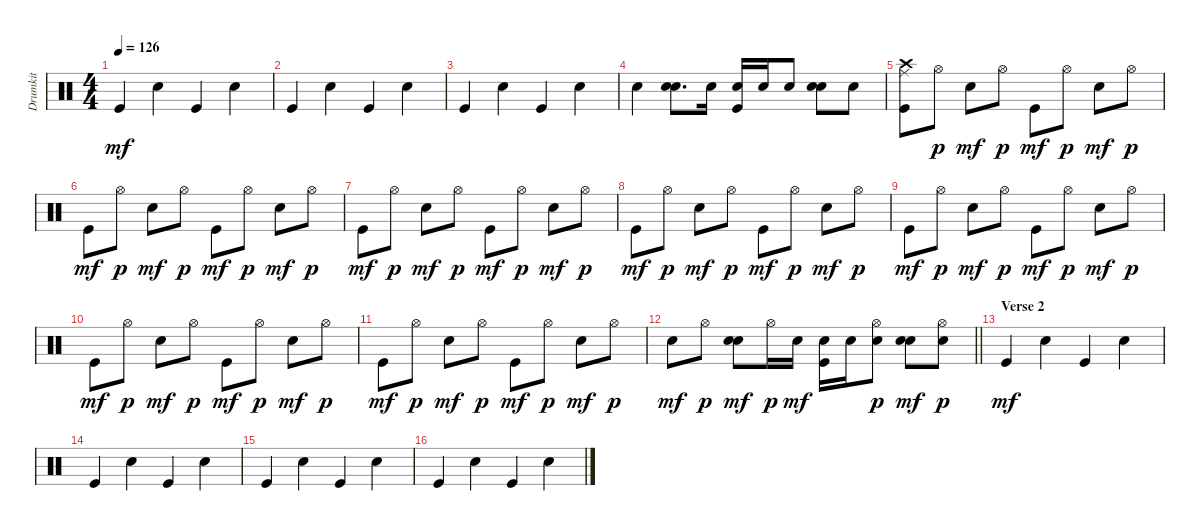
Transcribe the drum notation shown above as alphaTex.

\track ("Drumkit" "Drumkit") {instrument percussion}
\staff {score}
\articulation defaults
\ts (4 4)
\tempo 126
\clef neutral
\ks c "Kick (hit)".4{dy mf} "Snare (hit) 2".4 "Kick (hit)".4 "Snare (hit) 2".4
|
"Kick (hit)".4 "Snare (hit) 2".4 "Kick (hit)".4 "Snare (hit) 2".4 |
"Kick (hit)".4 "Snare (hit) 2".4 "Kick (hit)".4 "Snare (hit) 2".4 |
"Snare (hit) 2".4 ("Snare (hit) 2" "Snare (hit) 2").8{d} "Snare (hit) 2".16 ("Kick (hit)" "Snare (hit) 2").16 "Snare (hit) 2".16 "Snare (hit) 2".8 ("Snare (hit) 2" "Snare (hit) 2").8 "Snare (hit) 2".8 |
("Kick (hit)" "Crash high (hit)" "Ride (middle)").8 "Hi-Hat (open)".8{dy p} "Snare (hit) 2".8{dy mf} "Hi-Hat (open)".8{dy p} "Kick (hit)".8{dy mf} "Hi-Hat (open)".8{dy p} "Snare (hit) 2".8{dy mf} "Hi-Hat (open)".8{dy p} |
"Kick (hit)".8{dy mf} "Hi-Hat (open)".8{dy p} "Snare (hit) 2".8{dy mf} "Hi-Hat (open)".8{dy p} "Kick (hit)".8{dy mf} "Hi-Hat (open)".8{dy p} "Snare (hit) 2".8{dy mf} "Hi-Hat (open)".8{dy p} |
"Kick (hit)".8{dy mf} "Hi-Hat (open)".8{dy p} "Snare (hit) 2".8{dy mf} "Hi-Hat (open)".8{dy p} "Kick (hit)".8{dy mf} "Hi-Hat (open)".8{dy p} "Snare (hit) 2".8{dy mf} "Hi-Hat (open)".8{dy p} |
"Kick (hit)".8{dy mf} "Hi-Hat (open)".8{dy p} "Snare (hit) 2".8{dy mf} "Hi-Hat (open)".8{dy p} "Kick (hit)".8{dy mf} "Hi-Hat (open)".8{dy p} "Snare (hit) 2".8{dy mf} "Hi-Hat (open)".8{dy p} |
"Kick (hit)".8{dy mf} "Hi-Hat (open)".8{dy p} "Snare (hit) 2".8{dy mf} "Hi-Hat (open)".8{dy p} "Kick (hit)".8{dy mf} "Hi-Hat (open)".8{dy p} "Snare (hit) 2".8{dy mf} "Hi-Hat (open)".8{dy p} |
"Kick (hit)".8{dy mf} "Hi-Hat (open)".8{dy p} "Snare (hit) 2".8{dy mf} "Hi-Hat (open)".8{dy p} "Kick (hit)".8{dy mf} "Hi-Hat (open)".8{dy p} "Snare (hit) 2".8{dy mf} "Hi-Hat (open)".8{dy p} |
"Kick (hit)".8{dy mf} "Hi-Hat (open)".8{dy p} "Snare (hit) 2".8{dy mf} "Hi-Hat (open)".8{dy p} "Kick (hit)".8{dy mf} "Hi-Hat (open)".8{dy p} "Snare (hit) 2".8{dy mf} "Hi-Hat (open)".8{dy p} |
\barLineRight lightlight "Snare (hit) 2".8{dy mf} "Hi-Hat (open)".8{dy p}
("Snare (hit) 2" "Snare (hit) 2").8{dy mf} "Hi-Hat (open)".16{dy p} "Snare (hit) 2".16{dy mf} ("Kick (hit)" "Snare (hit) 2").16 "Snare (hit) 2".16 ("Snare (hit) 2" "Hi-Hat (open)").8{dy p} ("Snare (hit) 2" "Snare (hit) 2").8{dy mf} ("Snare (hit) 2" "Hi-Hat (open)").8{dy p} |
\section ("" "Verse 2")
"Kick (hit)".4{dy mf} "Snare (hit) 2".4 "Kick (hit)".4 "Snare (hit) 2".4 |
"Kick (hit)".4 "Snare (hit) 2".4 "Kick (hit)".4 "Snare (hit) 2".4 |
"Kick (hit)".4 "Snare (hit) 2".4 "Kick (hit)".4 "Snare (hit) 2".4 |
"Kick (hit)".4 "Snare (hit) 2".4 "Kick (hit)".4 "Snare (hit) 2".4
